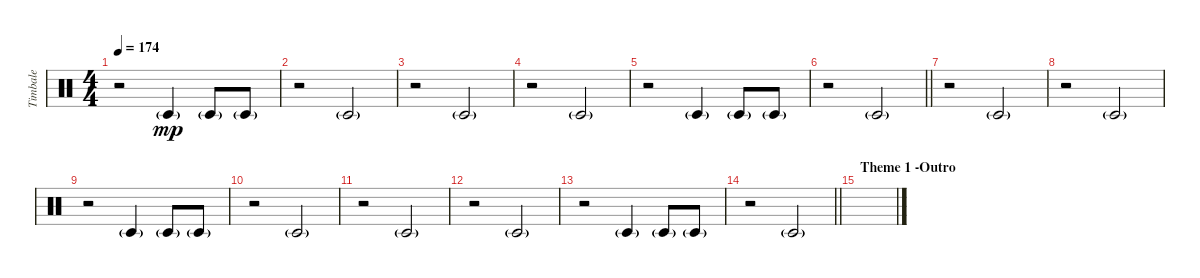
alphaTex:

\track ("Timbale" "Timbale") {instrument percussion}
\staff {score}
\articulation defaults
\ts (4 4)
\tempo 174
\clef neutral
\ks c
r.2{dy mp} "Timbale low (hit)"{g}.4 "Timbale low (hit)"{g}.8 "Timbale low (hit)"{g}.8 |
r.2 "Timbale low (hit)"{g}.2 |
r.2 "Timbale low (hit)"{g}.2 |
r.2 "Timbale low (hit)"{g}.2 |
r.2 "Timbale low (hit)"{g}.4 "Timbale low (hit)"{g}.8 "Timbale low (hit)"{g}.8 |
\barLineRight lightlight
r.2 "Timbale low (hit)"{g}.2 |
r.2 "Timbale low (hit)"{g}.2 |
r.2 "Timbale low (hit)"{g}.2 |
r.2 "Timbale low (hit)"{g}.4 "Timbale low (hit)"{g}.8 "Timbale low (hit)"{g}.8 |
r.2 "Timbale low (hit)"{g}.2 |
r.2 "Timbale low (hit)"{g}.2 |
r.2 "Timbale low (hit)"{g}.2 |
r.2 "Timbale low (hit)"{g}.4 "Timbale low (hit)"{g}.8 "Timbale low (hit)"{g}.8 |
\barLineRight lightlight
r.2 "Timbale low (hit)"{g}.2 |
\section ("" "Theme 1 -Outro")
